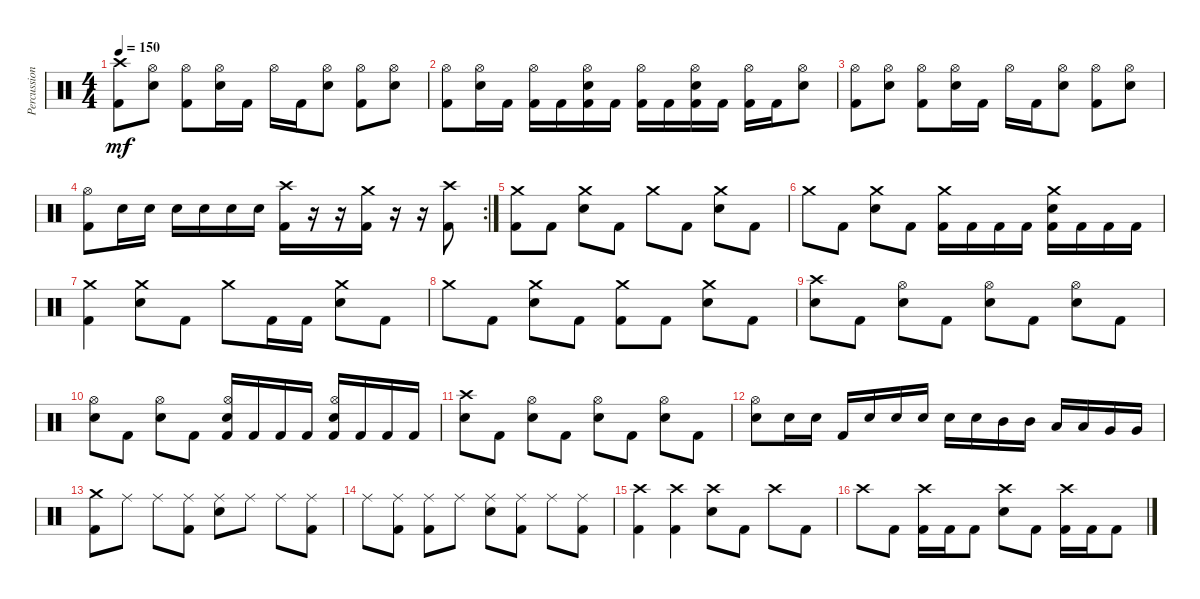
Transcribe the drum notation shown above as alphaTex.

\track ("Percussion" "Percussion") {instrument percussion}
\staff {score}
\articulation defaults
\ts (4 4)
\tempo 150
\clef neutral
\ks c
("Crash high (hit)" "Kick (hit) 2").8{dy mf} ("Hi-Hat (open)" "Snare (hit) 2").8 ("Hi-Hat (open)" "Kick (hit) 2").8 ("Hi-Hat (open)" "Snare (hit) 2").16 "Kick (hit) 2".16 "Hi-Hat (open)".16 "Kick (hit) 2".16 ("Snare (hit) 2" "Hi-Hat (open)").8 ("Hi-Hat (open)" "Kick (hit) 2").8 ("Snare (hit) 2" "Hi-Hat (open)").8 |
("Kick (hit) 2" "Hi-Hat (open)").8 ("Snare (hit) 2" "Hi-Hat (open)").16 "Kick (hit) 2".16 ("Kick (hit) 2" "Hi-Hat (open)").16 "Kick (hit) 2".16 ("Hi-Hat (open)" "Snare (hit) 2" "Kick (hit) 2").16 "Kick (hit) 2".16 ("Kick (hit) 2" "Hi-Hat (open)").16 "Kick (hit) 2".16 ("Kick (hit) 2" "Hi-Hat (open)" "Snare (hit) 2").16 "Kick (hit) 2".16 ("Hi-Hat (open)" "Kick (hit) 2").16 "Kick (hit) 2".16 ("Hi-Hat (open)" "Snare (hit) 2").8 |
("Hi-Hat (open)" "Kick (hit) 2").8 ("Hi-Hat (open)" "Snare (hit) 2").8 ("Hi-Hat (open)" "Kick (hit) 2").8 ("Hi-Hat (open)" "Snare (hit) 2").16 "Kick (hit) 2".16 "Hi-Hat (open)".16 "Kick (hit) 2".16 ("Snare (hit) 2" "Hi-Hat (open)").8 ("Hi-Hat (open)" "Kick (hit) 2").8 ("Snare (hit) 2" "Hi-Hat (open)").8 |
\rc 2
("Kick (hit) 2" "Hi-Hat (open)").8 "Snare (hit) 2".16 "Snare (hit) 2".16 "Snare (hit) 2".16 "Snare (hit) 2".16 "Snare (hit) 2".16 "Snare (hit) 2".16 ("Kick (hit) 2" "Crash high (hit)").16 r.16 r.16 ("Kick (hit) 2" "Crash medium (hit)").16 r.16 r.16 ("Kick (hit) 2" "Crash high (hit)").8 |
("Crash medium (hit)" "Kick (hit) 2").8 "Kick (hit) 2".8 ("Snare (hit) 2" "Crash medium (hit)").8 "Kick (hit) 2".8 "Crash medium (hit)".8 "Kick (hit) 2".8 ("Crash medium (hit)" "Snare (hit) 2").8 "Kick (hit) 2".8 |
"Crash medium (hit)".8 "Kick (hit) 2".8 ("Snare (hit) 2" "Crash medium (hit)").8 "Kick (hit) 2".8 ("Kick (hit) 2" "Crash medium (hit)").16 "Kick (hit) 2".16 "Kick (hit) 2".16 "Kick (hit) 2".16 ("Kick (hit) 2" "Crash medium (hit)" "Snare (hit) 2").16 "Kick (hit) 2".16 "Kick (hit) 2".16 "Kick (hit) 2".16 |
("Crash medium (hit)" "Kick (hit) 2").4 ("Snare (hit) 2" "Crash medium (hit)").8 "Kick (hit) 2".8 "Crash medium (hit)".8 "Kick (hit) 2".16 "Kick (hit) 2".16 ("Crash medium (hit)" "Snare (hit) 2").8 "Kick (hit) 2".8 |
"Crash medium (hit)".8 "Kick (hit) 2".8 ("Snare (hit) 2" "Crash medium (hit)").8 "Kick (hit) 2".8 ("Kick (hit) 2" "Crash medium (hit)").8 "Kick (hit) 2".8 ("Snare (hit) 2" "Crash medium (hit)").8 "Kick (hit) 2".8 |
("Crash high (hit)" "Snare (hit) 2").8 "Kick (hit) 2".8 ("Hi-Hat (open)" "Snare (hit) 2").8 "Kick (hit) 2".8 ("Hi-Hat (open)" "Snare (hit) 2").8 "Kick (hit) 2".8 ("Hi-Hat (open)" "Snare (hit) 2").8 "Kick (hit) 2".8 |
("Hi-Hat (open)" "Snare (hit) 2").8 "Kick (hit) 2".8 ("Hi-Hat (open)" "Snare (hit) 2").8 "Kick (hit) 2".8 ("Kick (hit) 2" "Snare (hit) 2" "Hi-Hat (open)").16 "Kick (hit) 2".16 "Kick (hit) 2".16 "Kick (hit) 2".16 ("Kick (hit) 2" "Snare (hit) 2" "Hi-Hat (open)").16 "Kick (hit) 2".16 "Kick (hit) 2".16 "Kick (hit) 2".16 |
("Crash high (hit)" "Snare (hit) 2").8 "Kick (hit) 2".8 ("Hi-Hat (open)" "Snare (hit) 2").8 "Kick (hit) 2".8 ("Hi-Hat (open)" "Snare (hit) 2").8 "Kick (hit) 2".8 ("Hi-Hat (open)" "Snare (hit) 2").8 "Kick (hit) 2".8 |
("Snare (hit) 2" "Hi-Hat (open)").8 "Snare (hit) 2".16 "Snare (hit) 2".16 "Kick (hit) 2".16 "Snare (hit) 2".16 "Snare (hit) 2".16 "Snare (hit) 2".16 "Snare (hit) 2".16 "Snare (hit) 2".16 "Mid Tom (hit)".16 "Mid Tom (hit)".16 "Low Tom (hit)".16 "Low Tom (hit)".16 "Very Low Tom (hit)".16 "Very Low Tom (hit)".16 |
("Crash medium (hit)" "Kick (hit) 2").8 "Ride (middle)".8 "Ride (middle)".8 ("Ride (middle)" "Kick (hit) 2").8 ("Ride (middle)" "Snare (hit) 2").8 "Ride (middle)".8 "Ride (middle)".8 ("Ride (middle)" "Kick (hit) 2").8 |
"Ride (middle)".8 ("Ride (middle)" "Kick (hit) 2").8 ("Ride (middle)" "Kick (hit) 2").8 "Ride (middle)".8 ("Ride (middle)" "Snare (hit) 2").8 ("Ride (middle)" "Kick (hit) 2").8 "Ride (middle)".8 ("Kick (hit) 2" "Ride (middle)").8 |
("Crash high (hit)" "Kick (hit) 2").4 ("Kick (hit) 2" "Crash high (hit)").4 ("Snare (hit) 2" "Crash high (hit)").8 "Kick (hit) 2".8 "Crash high (hit)".8 "Kick (hit) 2".8 |
"Crash high (hit)".8 "Kick (hit) 2".8 ("Kick (hit) 2" "Crash high (hit)").16 "Kick (hit) 2".16 "Kick (hit) 2".8 ("Snare (hit) 2" "Crash high (hit)").8 "Kick (hit) 2".8 ("Kick (hit) 2" "Crash high (hit)").16 "Kick (hit) 2".16 "Kick (hit) 2".8
